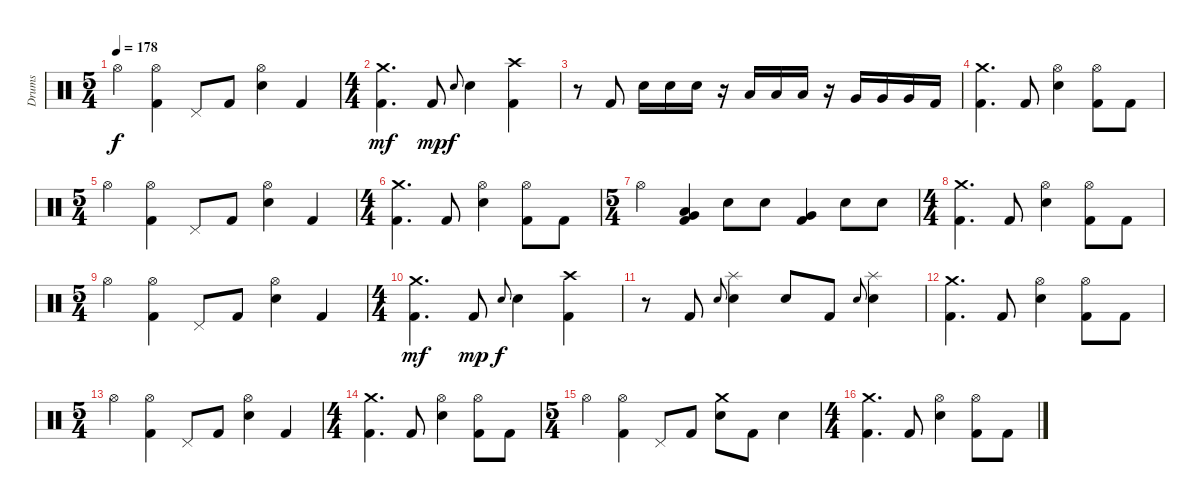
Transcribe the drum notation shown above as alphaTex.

\track ("Drums" "Drums") {instrument percussion}
\staff {score}
\articulation defaults
\ts (5 4)
\tempo 178
\clef neutral
\ks c "Hi-Hat (open)".4{dy f}
("Hi-Hat (open)" "Kick (hit) 2").4 "Pedal Hi-Hat (hit)".8 "Kick (hit) 2".8 ("Hi-Hat (open)" "Electric Snare (hit)").4 "Kick (hit) 2".4 |
\ts (4 4)
("Crash medium (hit)" "Kick (hit) 2").4{d dy mf} "Kick (hit) 2".8{dy mp} "Electric Snare (hit)".8{gr onbeat dy f} "Electric Snare (hit)".4 ("Crash high (hit)" "Kick (hit) 2").4 |
r.8 "Kick (hit) 2".8 "Electric Snare (hit)".16 "Electric Snare (hit)".16 "Electric Snare (hit)".16 r.16 "Low Tom (hit)".16 "Low Tom (hit)".16 "Low Tom (hit)".16 r.16 "Very Low Tom (hit)".16 "Very Low Tom (hit)".16 "Very Low Tom (hit)".16 "Kick (hit) 2".16 |
("Crash medium (hit)" "Kick (hit) 2").4{d} "Kick (hit) 2".8 ("Hi-Hat (open)" "Electric Snare (hit)").4 ("Hi-Hat (open)" "Kick (hit) 2").8 "Kick (hit) 2".8 |
\ts (5 4)
"Hi-Hat (open)".4 ("Hi-Hat (open)" "Kick (hit) 2").4 "Pedal Hi-Hat (hit)".8 "Kick (hit) 2".8 ("Hi-Hat (open)" "Electric Snare (hit)").4 "Kick (hit) 2".4 |
\ts (4 4)
("Crash medium (hit)" "Kick (hit) 2").4{d} "Kick (hit) 2".8 ("Hi-Hat (open)" "Electric Snare (hit)").4 ("Hi-Hat (open)" "Kick (hit) 2").8 "Kick (hit) 2".8 |
\ts (5 4)
"Hi-Hat (open)".4 ("Low Tom (hit)" "Very Low Tom (hit)" "Kick (hit) 2").4 "Electric Snare (hit)".8 "Electric Snare (hit)".8 ("Very Low Tom (hit)" "Kick (hit) 2").4 "Electric Snare (hit)".8 "Electric Snare (hit)".8 |
\ts (4 4)
("Crash medium (hit)" "Kick (hit) 2").4{d} "Kick (hit) 2".8 ("Hi-Hat (open)" "Electric Snare (hit)").4 ("Hi-Hat (open)" "Kick (hit) 2").8 "Kick (hit) 2".8 |
\ts (5 4)
"Hi-Hat (open)".4 ("Hi-Hat (open)" "Kick (hit) 2").4 "Pedal Hi-Hat (hit)".8 "Kick (hit) 2".8 ("Hi-Hat (open)" "Electric Snare (hit)").4 "Kick (hit) 2".4 |
\ts (4 4)
("Crash medium (hit)" "Kick (hit) 2").4{d dy mf} "Kick (hit) 2".8{dy mp} "Electric Snare (hit)".8{gr onbeat dy f} "Electric Snare (hit)".4 ("Crash high (hit)" "Kick (hit) 2").4 |
r.8 "Kick (hit) 2".8 "Electric Snare (hit)".8{gr onbeat} ("Splash (hit)" "Electric Snare (hit)").4 "Electric Snare (hit)".8 "Kick (hit) 2".8 "Electric Snare (hit)".8{gr onbeat} ("Splash (hit)" "Electric Snare (hit)").4 |
("Crash medium (hit)" "Kick (hit) 2").4{d} "Kick (hit) 2".8 ("Hi-Hat (open)" "Electric Snare (hit)").4 ("Hi-Hat (open)" "Kick (hit) 2").8 "Kick (hit) 2".8 |
\ts (5 4)
"Hi-Hat (open)".4 ("Hi-Hat (open)" "Kick (hit) 2").4 "Pedal Hi-Hat (hit)".8 "Kick (hit) 2".8 ("Hi-Hat (open)" "Electric Snare (hit)").4 "Kick (hit) 2".4 |
\ts (4 4)
("Crash medium (hit)" "Kick (hit) 2").4{d} "Kick (hit) 2".8 ("Hi-Hat (open)" "Electric Snare (hit)").4 ("Hi-Hat (open)" "Kick (hit) 2").8 "Kick (hit) 2".8 |
\ts (5 4)
"Hi-Hat (open)".4 ("Hi-Hat (open)" "Kick (hit) 2").4 "Pedal Hi-Hat (hit)".8 "Kick (hit) 2".8 ("Crash medium (hit)" "Electric Snare (hit)").8 "Kick (hit) 2".8 "Electric Snare (hit)".4 |
\ts (4 4)
("Crash medium (hit)" "Kick (hit) 2").4{d} "Kick (hit) 2".8 ("Hi-Hat (open)" "Electric Snare (hit)").4 ("Hi-Hat (open)" "Kick (hit) 2").8 "Kick (hit) 2".8
